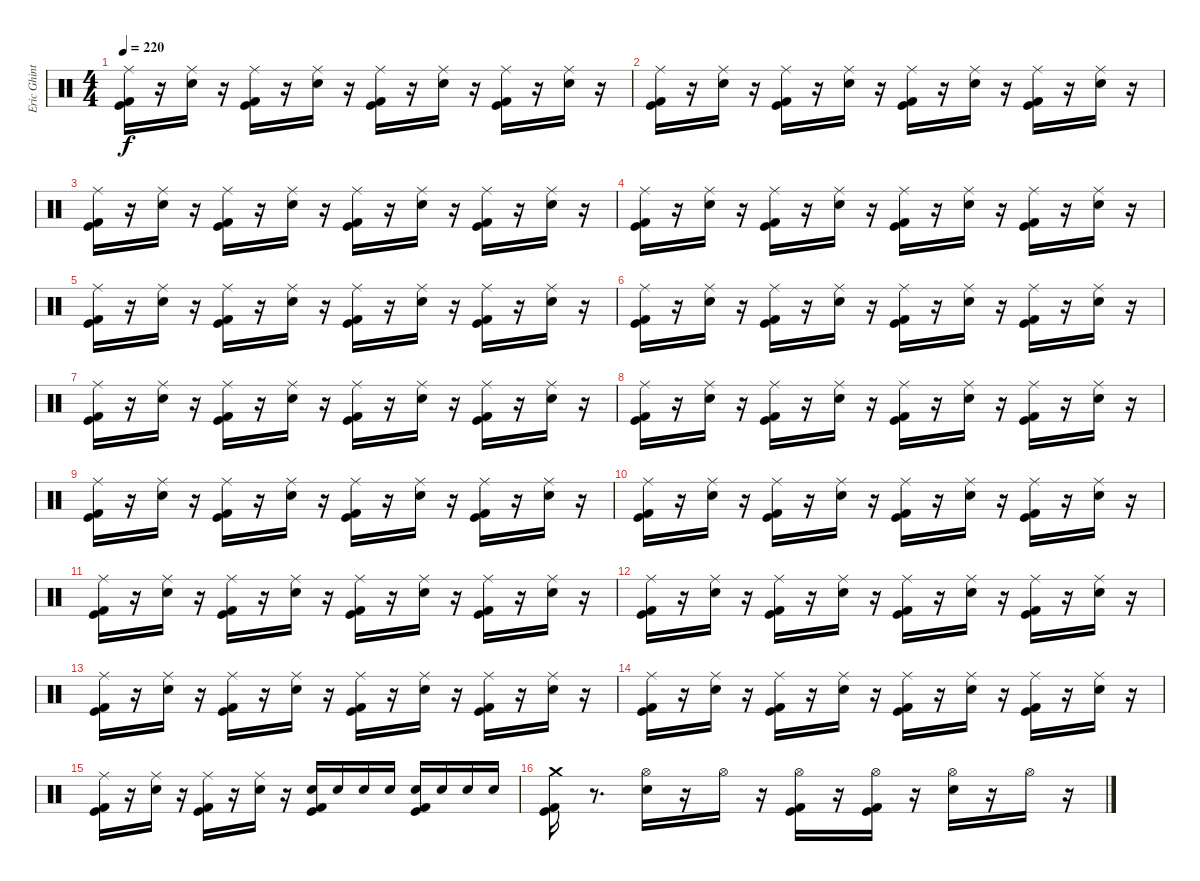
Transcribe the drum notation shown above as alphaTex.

\track ("Eric Ghint" "Eric Ghint") {instrument percussion}
\staff {score}
\articulation defaults
\ts (4 4)
\tempo 220
\clef neutral
\ks c
("Ride (middle)" "Kick (hit) 2" "Kick (hit)").16{dy f} r.16 ("Snare (hit) 2" "Ride (middle)").16 r.16 ("Kick (hit) 2" "Ride (middle)" "Kick (hit)").16 r.16 ("Snare (hit) 2" "Ride (middle)").16 r.16 ("Kick (hit) 2" "Ride (middle)" "Kick (hit)").16 r.16 ("Snare (hit) 2" "Ride (middle)").16 r.16 ("Kick (hit) 2" "Ride (middle)" "Kick (hit)").16 r.16 ("Snare (hit) 2" "Ride (middle)").16 r.16 |
("Ride (middle)" "Kick (hit) 2" "Kick (hit)").16 r.16 ("Snare (hit) 2" "Ride (middle)").16 r.16 ("Kick (hit) 2" "Ride (middle)" "Kick (hit)").16 r.16 ("Snare (hit) 2" "Ride (middle)").16 r.16 ("Kick (hit) 2" "Ride (middle)" "Kick (hit)").16 r.16 ("Snare (hit) 2" "Ride (middle)").16 r.16 ("Kick (hit) 2" "Ride (middle)" "Kick (hit)").16 r.16 ("Snare (hit) 2" "Ride (middle)").16 r.16 |
("Ride (middle)" "Kick (hit) 2" "Kick (hit)").16 r.16 ("Snare (hit) 2" "Ride (middle)").16 r.16 ("Kick (hit) 2" "Ride (middle)" "Kick (hit)").16 r.16 ("Snare (hit) 2" "Ride (middle)").16 r.16 ("Kick (hit) 2" "Ride (middle)" "Kick (hit)").16 r.16 ("Snare (hit) 2" "Ride (middle)").16 r.16 ("Kick (hit) 2" "Ride (middle)" "Kick (hit)").16 r.16 ("Snare (hit) 2" "Ride (middle)").16 r.16 |
("Ride (middle)" "Kick (hit) 2" "Kick (hit)").16 r.16 ("Snare (hit) 2" "Ride (middle)").16 r.16 ("Kick (hit) 2" "Ride (middle)" "Kick (hit)").16 r.16 ("Snare (hit) 2" "Ride (middle)").16 r.16 ("Kick (hit) 2" "Ride (middle)" "Kick (hit)").16 r.16 ("Snare (hit) 2" "Ride (middle)").16 r.16 ("Kick (hit) 2" "Ride (middle)" "Kick (hit)").16 r.16 ("Snare (hit) 2" "Ride (middle)").16 r.16 |
("Ride (middle)" "Kick (hit) 2" "Kick (hit)").16 r.16 ("Snare (hit) 2" "Ride (middle)").16 r.16 ("Kick (hit) 2" "Ride (middle)" "Kick (hit)").16 r.16 ("Snare (hit) 2" "Ride (middle)").16 r.16 ("Kick (hit) 2" "Ride (middle)" "Kick (hit)").16 r.16 ("Snare (hit) 2" "Ride (middle)").16 r.16 ("Kick (hit) 2" "Ride (middle)" "Kick (hit)").16 r.16 ("Snare (hit) 2" "Ride (middle)").16 r.16 |
("Ride (middle)" "Kick (hit) 2" "Kick (hit)").16 r.16 ("Snare (hit) 2" "Ride (middle)").16 r.16 ("Kick (hit) 2" "Ride (middle)" "Kick (hit)").16 r.16 ("Snare (hit) 2" "Ride (middle)").16 r.16 ("Kick (hit) 2" "Ride (middle)" "Kick (hit)").16 r.16 ("Snare (hit) 2" "Ride (middle)").16 r.16 ("Kick (hit) 2" "Ride (middle)" "Kick (hit)").16 r.16 ("Snare (hit) 2" "Ride (middle)").16 r.16 |
("Ride (middle)" "Kick (hit) 2" "Kick (hit)").16 r.16 ("Snare (hit) 2" "Ride (middle)").16 r.16 ("Kick (hit) 2" "Ride (middle)" "Kick (hit)").16 r.16 ("Snare (hit) 2" "Ride (middle)").16 r.16 ("Kick (hit) 2" "Ride (middle)" "Kick (hit)").16 r.16 ("Snare (hit) 2" "Ride (middle)").16 r.16 ("Kick (hit) 2" "Ride (middle)" "Kick (hit)").16 r.16 ("Snare (hit) 2" "Ride (middle)").16 r.16 |
("Ride (middle)" "Kick (hit) 2" "Kick (hit)").16 r.16 ("Snare (hit) 2" "Ride (middle)").16 r.16 ("Kick (hit) 2" "Ride (middle)" "Kick (hit)").16 r.16 ("Snare (hit) 2" "Ride (middle)").16 r.16 ("Kick (hit) 2" "Ride (middle)" "Kick (hit)").16 r.16 ("Snare (hit) 2" "Ride (middle)").16 r.16 ("Kick (hit) 2" "Ride (middle)" "Kick (hit)").16 r.16 ("Snare (hit) 2" "Ride (middle)").16 r.16 |
("Ride (middle)" "Kick (hit) 2" "Kick (hit)").16 r.16 ("Snare (hit) 2" "Ride (middle)").16 r.16 ("Kick (hit) 2" "Ride (middle)" "Kick (hit)").16 r.16 ("Snare (hit) 2" "Ride (middle)").16 r.16 ("Kick (hit) 2" "Ride (middle)" "Kick (hit)").16 r.16 ("Snare (hit) 2" "Ride (middle)").16 r.16 ("Kick (hit) 2" "Ride (middle)" "Kick (hit)").16 r.16 ("Snare (hit) 2" "Ride (middle)").16 r.16 |
("Ride (middle)" "Kick (hit) 2" "Kick (hit)").16 r.16 ("Snare (hit) 2" "Ride (middle)").16 r.16 ("Kick (hit) 2" "Ride (middle)" "Kick (hit)").16 r.16 ("Snare (hit) 2" "Ride (middle)").16 r.16 ("Kick (hit) 2" "Ride (middle)" "Kick (hit)").16 r.16 ("Snare (hit) 2" "Ride (middle)").16 r.16 ("Kick (hit) 2" "Ride (middle)" "Kick (hit)").16 r.16 ("Snare (hit) 2" "Ride (middle)").16 r.16 |
("Ride (middle)" "Kick (hit) 2" "Kick (hit)").16 r.16 ("Snare (hit) 2" "Ride (middle)").16 r.16 ("Kick (hit) 2" "Ride (middle)" "Kick (hit)").16 r.16 ("Snare (hit) 2" "Ride (middle)").16 r.16 ("Kick (hit) 2" "Ride (middle)" "Kick (hit)").16 r.16 ("Snare (hit) 2" "Ride (middle)").16 r.16 ("Kick (hit) 2" "Ride (middle)" "Kick (hit)").16 r.16 ("Snare (hit) 2" "Ride (middle)").16 r.16 |
("Ride (middle)" "Kick (hit) 2" "Kick (hit)").16 r.16 ("Snare (hit) 2" "Ride (middle)").16 r.16 ("Kick (hit) 2" "Ride (middle)" "Kick (hit)").16 r.16 ("Snare (hit) 2" "Ride (middle)").16 r.16 ("Kick (hit) 2" "Ride (middle)" "Kick (hit)").16 r.16 ("Snare (hit) 2" "Ride (middle)").16 r.16 ("Kick (hit) 2" "Ride (middle)" "Kick (hit)").16 r.16 ("Snare (hit) 2" "Ride (middle)").16 r.16 |
("Ride (middle)" "Kick (hit) 2" "Kick (hit)").16 r.16 ("Snare (hit) 2" "Ride (middle)").16 r.16 ("Kick (hit) 2" "Ride (middle)" "Kick (hit)").16 r.16 ("Snare (hit) 2" "Ride (middle)").16 r.16 ("Kick (hit) 2" "Ride (middle)" "Kick (hit)").16 r.16 ("Snare (hit) 2" "Ride (middle)").16 r.16 ("Kick (hit) 2" "Ride (middle)" "Kick (hit)").16 r.16 ("Snare (hit) 2" "Ride (middle)").16 r.16 |
("Ride (middle)" "Kick (hit) 2" "Kick (hit)").16 r.16 ("Snare (hit) 2" "Ride (middle)").16 r.16 ("Kick (hit) 2" "Ride (middle)" "Kick (hit)").16 r.16 ("Snare (hit) 2" "Ride (middle)").16 r.16 ("Kick (hit) 2" "Ride (middle)" "Kick (hit)").16 r.16 ("Snare (hit) 2" "Ride (middle)").16 r.16 ("Kick (hit) 2" "Ride (middle)" "Kick (hit)").16 r.16 ("Snare (hit) 2" "Ride (middle)").16 r.16 |
("Ride (middle)" "Kick (hit) 2" "Kick (hit)").16 r.16 ("Snare (hit) 2" "Ride (middle)").16 r.16 ("Kick (hit) 2" "Ride (middle)" "Kick (hit)").16 r.16 ("Snare (hit) 2" "Ride (middle)").16 r.16 ("Kick (hit) 2" "Snare (hit) 2" "Kick (hit)").16 "Snare (hit) 2".16 "Snare (hit) 2".16 "Snare (hit) 2".16 ("Kick (hit) 2" "Snare (hit) 2" "Kick (hit)").16 "Snare (hit) 2".16 "Snare (hit) 2".16 "Snare (hit) 2".16 |
("Kick (hit) 2" "Crash medium (hit)" "Kick (hit)").16 r.8{d} ("Snare (hit) 2" "Hi-Hat (open)").16 r.16 "Hi-Hat (open)".16 r.16 ("Kick (hit) 2" "Hi-Hat (open)" "Kick (hit)").16 r.16 ("Kick (hit) 2" "Hi-Hat (open)" "Kick (hit)").16 r.16 ("Snare (hit) 2" "Hi-Hat (open)").16 r.16 "Hi-Hat (open)".16 r.16
